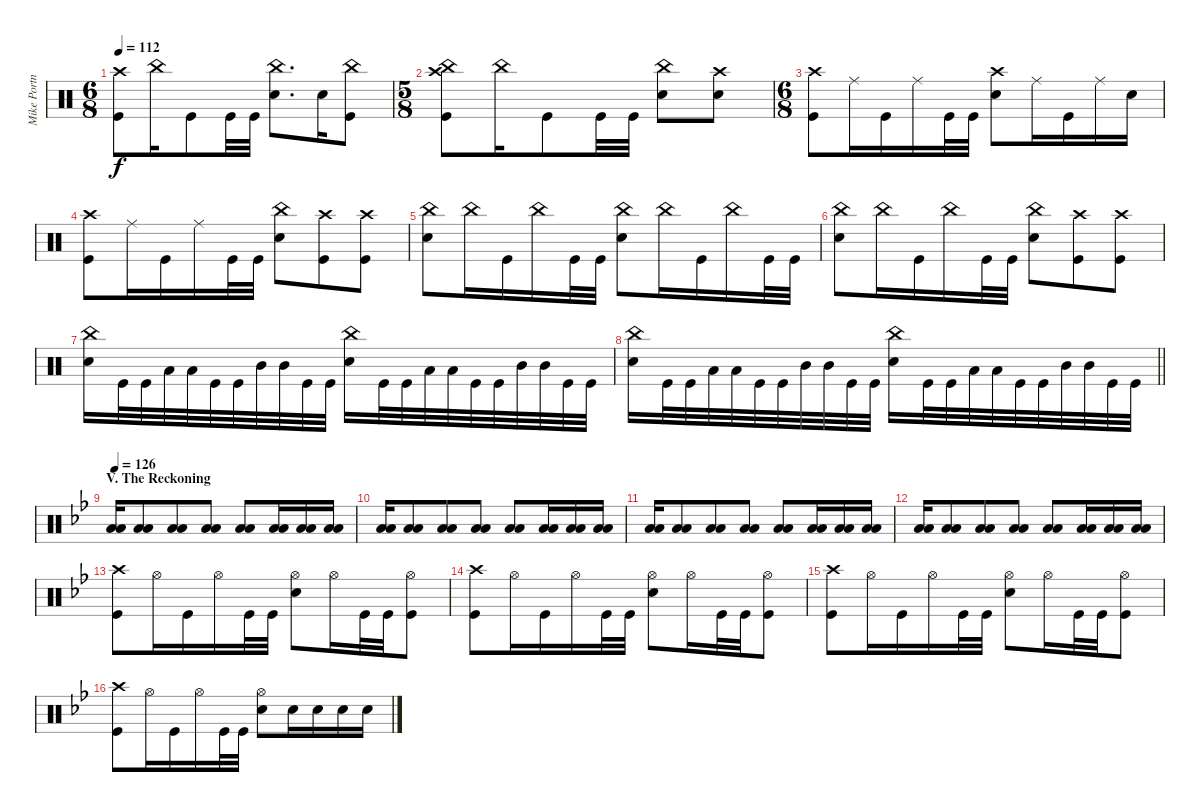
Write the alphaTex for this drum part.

\track ("Mike Portnoy - Drums" "Mike Portn") {instrument percussion}
\staff {score}
\articulation defaults
\ts (6 8)
\tempo 112
\clef neutral
\ks aminor
("Crash high (hit)" "Kick (hit)").8{dy f} "China (hit)".16 "Kick (hit)".8 "Kick (hit)".32 "Kick (hit)".32 ("China (hit)" "Snare (hit) 2").8{d} "Snare (hit) 2".16 ("China (hit)" "Kick (hit)").8 |
\ts (5 8)
("Crash high (hit)" "China (hit)" "Kick (hit)").8 "China (hit)".16 "Kick (hit)".8 "Kick (hit)".32 "Kick (hit)".32 ("China (hit)" "Snare (hit) 2").8 ("Crash high (hit)" "Snare (hit) 2").8 |
\ts (6 8)
("Crash high (hit)" "Kick (hit)").8 "Ride (middle)".16 "Kick (hit)".16 "Ride (middle)".16 "Kick (hit)".32 "Kick (hit)".32 ("Crash high (hit)" "Snare (hit) 2").8 "Ride (middle)".16 "Kick (hit)".16 "Ride (middle)".16 "Snare (hit) 2".16 |
("Crash high (hit)" "Kick (hit)").8 "Ride (middle)".16 "Kick (hit)".16 "Ride (middle)".16 "Kick (hit)".32 "Kick (hit)".32 ("China (hit)" "Snare (hit) 2").8 ("Crash high (hit)" "Kick (hit)").8 ("Crash high (hit)" "Kick (hit)").8 |
("China (hit)" "Snare (hit) 2").8 "China (hit)".16 "Kick (hit)".16 "China (hit)".16 "Kick (hit)".32 "Kick (hit)".32 ("China (hit)" "Snare (hit) 2").8 "China (hit)".16 "Kick (hit)".16 "China (hit)".16 "Kick (hit)".32 "Kick (hit)".32 |
("China (hit)" "Snare (hit) 2").8 "China (hit)".16 "Kick (hit)".16 "China (hit)".16 "Kick (hit)".32 "Kick (hit)".32 ("China (hit)" "Snare (hit) 2").8 ("Crash high (hit)" "Kick (hit)").8 ("Crash high (hit)" "Kick (hit)").8 |
("China (hit)" "Snare (hit) 2").16 "Kick (hit)".32 "Kick (hit)".32 "Low Tom (hit)".32 "Low Tom (hit)".32 "Kick (hit)".32 "Kick (hit)".32 "Mid Tom (hit)".32 "Mid Tom (hit)".32 "Kick (hit)".32 "Kick (hit)".32 ("China (hit)" "Snare (hit) 2").16 "Kick (hit)".32 "Kick (hit)".32 "Low Tom (hit)".32 "Low Tom (hit)".32 "Kick (hit)".32 "Kick (hit)".32 "Mid Tom (hit)".32 "Mid Tom (hit)".32 "Kick (hit)".32 "Kick (hit)".32 |
\barLineRight lightlight
("China (hit)" "Snare (hit) 2").16 "Kick (hit)".32 "Kick (hit)".32 "Low Tom (hit)".32 "Low Tom (hit)".32 "Kick (hit)".32 "Kick (hit)".32 "Mid Tom (hit)".32 "Mid Tom (hit)".32 "Kick (hit)".32 "Kick (hit)".32 ("China (hit)" "Snare (hit) 2").16 "Kick (hit)".32 "Kick (hit)".32 "Low Tom (hit)".32 "Low Tom (hit)".32 "Kick (hit)".32 "Kick (hit)".32 "Mid Tom (hit)".32 "Mid Tom (hit)".32 "Kick (hit)".32 "Kick (hit)".32 |
\section ("" "V. The Reckoning")
\tempo 126
\ks gminor
("Low Floor Tom (hit)" "Low Floor Tom (hit)").16 ("Low Floor Tom (hit)" "Low Floor Tom (hit)").8 ("Low Floor Tom (hit)" "Low Floor Tom (hit)").8 ("Low Floor Tom (hit)" "Low Floor Tom (hit)").8 ("Low Floor Tom (hit)" "Low Floor Tom (hit)").8 ("Low Floor Tom (hit)" "Low Floor Tom (hit)").16 ("Low Floor Tom (hit)" "Low Floor Tom (hit)").16 ("Low Floor Tom (hit)" "Low Floor Tom (hit)").16 |
("Low Floor Tom (hit)" "Low Floor Tom (hit)").16 ("Low Floor Tom (hit)" "Low Floor Tom (hit)").8 ("Low Floor Tom (hit)" "Low Floor Tom (hit)").8 ("Low Floor Tom (hit)" "Low Floor Tom (hit)").8 ("Low Floor Tom (hit)" "Low Floor Tom (hit)").8 ("Low Floor Tom (hit)" "Low Floor Tom (hit)").16 ("Low Floor Tom (hit)" "Low Floor Tom (hit)").16 ("Low Floor Tom (hit)" "Low Floor Tom (hit)").16 |
("Low Floor Tom (hit)" "Low Floor Tom (hit)").16 ("Low Floor Tom (hit)" "Low Floor Tom (hit)").8 ("Low Floor Tom (hit)" "Low Floor Tom (hit)").8 ("Low Floor Tom (hit)" "Low Floor Tom (hit)").8 ("Low Floor Tom (hit)" "Low Floor Tom (hit)").8 ("Low Floor Tom (hit)" "Low Floor Tom (hit)").16 ("Low Floor Tom (hit)" "Low Floor Tom (hit)").16 ("Low Floor Tom (hit)" "Low Floor Tom (hit)").16 |
("Low Floor Tom (hit)" "Low Floor Tom (hit)").16 ("Low Floor Tom (hit)" "Low Floor Tom (hit)").8 ("Low Floor Tom (hit)" "Low Floor Tom (hit)").8 ("Low Floor Tom (hit)" "Low Floor Tom (hit)").8 ("Low Floor Tom (hit)" "Low Floor Tom (hit)").8 ("Low Floor Tom (hit)" "Low Floor Tom (hit)").16 ("Low Floor Tom (hit)" "Low Floor Tom (hit)").16 ("Low Floor Tom (hit)" "Low Floor Tom (hit)").16 |
("Crash high (hit)" "Kick (hit)").8 "Hi-Hat (open)".16 "Kick (hit)".16 "Hi-Hat (open)".16 "Kick (hit)".32 "Kick (hit)".32 ("Hi-Hat (open)" "Snare (hit) 2").8 "Hi-Hat (open)".16 "Kick (hit)".32 "Kick (hit)".32 ("Hi-Hat (open)" "Kick (hit)").8 |
("Crash high (hit)" "Kick (hit)").8 "Hi-Hat (open)".16 "Kick (hit)".16 "Hi-Hat (open)".16 "Kick (hit)".32 "Kick (hit)".32 ("Hi-Hat (open)" "Snare (hit) 2").8 "Hi-Hat (open)".16 "Kick (hit)".32 "Kick (hit)".32 ("Hi-Hat (open)" "Kick (hit)").8 |
("Crash high (hit)" "Kick (hit)").8 "Hi-Hat (open)".16 "Kick (hit)".16 "Hi-Hat (open)".16 "Kick (hit)".32 "Kick (hit)".32 ("Hi-Hat (open)" "Snare (hit) 2").8 "Hi-Hat (open)".16 "Kick (hit)".32 "Kick (hit)".32 ("Hi-Hat (open)" "Kick (hit)").8 |
("Crash high (hit)" "Kick (hit)").8 "Hi-Hat (open)".16 "Kick (hit)".16 "Hi-Hat (open)".16 "Kick (hit)".32 "Kick (hit)".32 ("Hi-Hat (open)" "Snare (hit) 2").8 "Snare (hit) 2".16 "Snare (hit) 2".16 "Snare (hit) 2".16 "Snare (hit) 2".16
